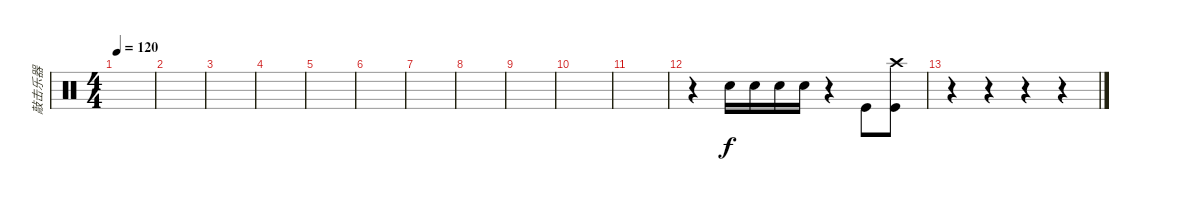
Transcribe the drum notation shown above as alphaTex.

\track ("敲击乐器" "敲击乐器") {instrument percussion}
\staff {score}
\articulation defaults
\ts (4 4)
\tempo 120
\clef neutral
\ks c
|
|
|
|
|
|
|
|
|
|
|
r.4 "Snare (hit) 2".16 "Snare (hit) 2".16 "Snare (hit) 2".16 "Snare (hit) 2".16 r.4 "Kick (hit)".8 ("Crash high (hit)" "Kick (hit)").8 |
r.4 r.4 r.4 r.4
